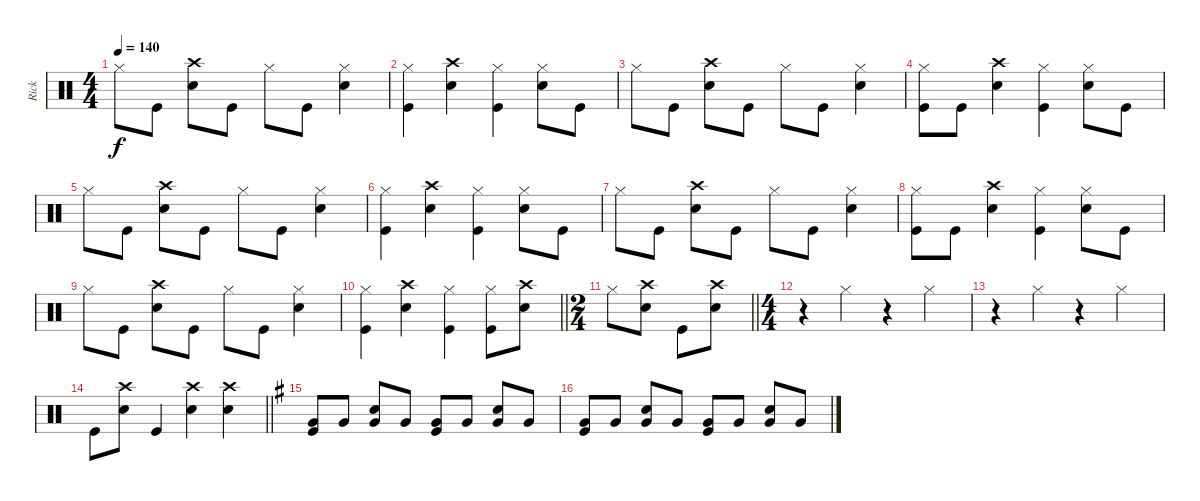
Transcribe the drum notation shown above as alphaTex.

\track ("Rick" "Rick") {instrument percussion}
\staff {score}
\articulation defaults
\ts (4 4)
\tempo 140
\clef neutral
\ks c "Hi-Hat (closed)".8{dy f} "Kick (hit)".8
("Crash high (hit)" "Snare (hit) 2").8 "Kick (hit)".8 "Hi-Hat (closed)".8 "Kick (hit)".8 ("Hi-Hat (closed)" "Snare (hit) 2").4 |
("Hi-Hat (closed)" "Kick (hit)").4 ("Crash high (hit)" "Snare (hit) 2").4 ("Hi-Hat (closed)" "Kick (hit)").4 ("Hi-Hat (closed)" "Snare (hit) 2").8 "Kick (hit)".8 |
"Hi-Hat (closed)".8 "Kick (hit)".8 ("Crash high (hit)" "Snare (hit) 2").8 "Kick (hit)".8 "Hi-Hat (closed)".8 "Kick (hit)".8 ("Hi-Hat (closed)" "Snare (hit) 2").4 |
("Hi-Hat (closed)" "Kick (hit)").8 "Kick (hit)".8 ("Crash high (hit)" "Snare (hit) 2").4 ("Hi-Hat (closed)" "Kick (hit)").4 ("Hi-Hat (closed)" "Snare (hit) 2").8 "Kick (hit)".8 |
"Hi-Hat (closed)".8 "Kick (hit)".8 ("Crash high (hit)" "Snare (hit) 2").8 "Kick (hit)".8 "Hi-Hat (closed)".8 "Kick (hit)".8 ("Hi-Hat (closed)" "Snare (hit) 2").4 |
("Hi-Hat (closed)" "Kick (hit)").4 ("Crash high (hit)" "Snare (hit) 2").4 ("Hi-Hat (closed)" "Kick (hit)").4 ("Hi-Hat (closed)" "Snare (hit) 2").8 "Kick (hit)".8 |
"Hi-Hat (closed)".8 "Kick (hit)".8 ("Crash high (hit)" "Snare (hit) 2").8 "Kick (hit)".8 "Hi-Hat (closed)".8 "Kick (hit)".8 ("Hi-Hat (closed)" "Snare (hit) 2").4 |
("Hi-Hat (closed)" "Kick (hit)").8 "Kick (hit)".8 ("Crash high (hit)" "Snare (hit) 2").4 ("Hi-Hat (closed)" "Kick (hit)").4 ("Hi-Hat (closed)" "Snare (hit) 2").8 "Kick (hit)".8 |
"Hi-Hat (closed)".8 "Kick (hit)".8 ("Crash high (hit)" "Snare (hit) 2").8 "Kick (hit)".8 "Hi-Hat (closed)".8 "Kick (hit)".8 ("Hi-Hat (closed)" "Snare (hit) 2").4 |
\barLineRight lightlight
("Hi-Hat (closed)" "Kick (hit)").4 ("Crash high (hit)" "Snare (hit) 2").4 ("Hi-Hat (closed)" "Kick (hit)").4 ("Hi-Hat (closed)" "Kick (hit)").8 ("Crash high (hit)" "Snare (hit) 2").8 |
\ts (2 4)
\barLineRight lightlight "Hi-Hat (closed)".8
("Crash high (hit)" "Snare (hit) 2").8 "Kick (hit)".8 ("Crash high (hit)" "Snare (hit) 2").8 |
\ts (4 4)
r.4 "Hi-Hat (closed)".4 r.4 "Hi-Hat (closed)".4 |
r.4 "Hi-Hat (closed)".4 r.4 "Hi-Hat (closed)".4 |
\barLineRight lightlight "Kick (hit)".8
("Crash high (hit)" "Snare (hit) 2").8 "Kick (hit)".4 ("Crash high (hit)" "Snare (hit) 2").4 ("Crash high (hit)" "Snare (hit) 2").4 |
\ks g
("Very Low Tom (hit)" "Kick (hit)").8 "Very Low Tom (hit)".8 ("Snare (hit) 2" "Very Low Tom (hit)").8 "Very Low Tom (hit)".8 ("Very Low Tom (hit)" "Kick (hit)").8 "Very Low Tom (hit)".8 ("Snare (hit) 2" "Very Low Tom (hit)").8 "Very Low Tom (hit)".8 |
("Very Low Tom (hit)" "Kick (hit)").8 "Very Low Tom (hit)".8 ("Snare (hit) 2" "Very Low Tom (hit)").8 "Very Low Tom (hit)".8 ("Very Low Tom (hit)" "Kick (hit)").8 "Very Low Tom (hit)".8 ("Snare (hit) 2" "Very Low Tom (hit)").8 "Very Low Tom (hit)".8
